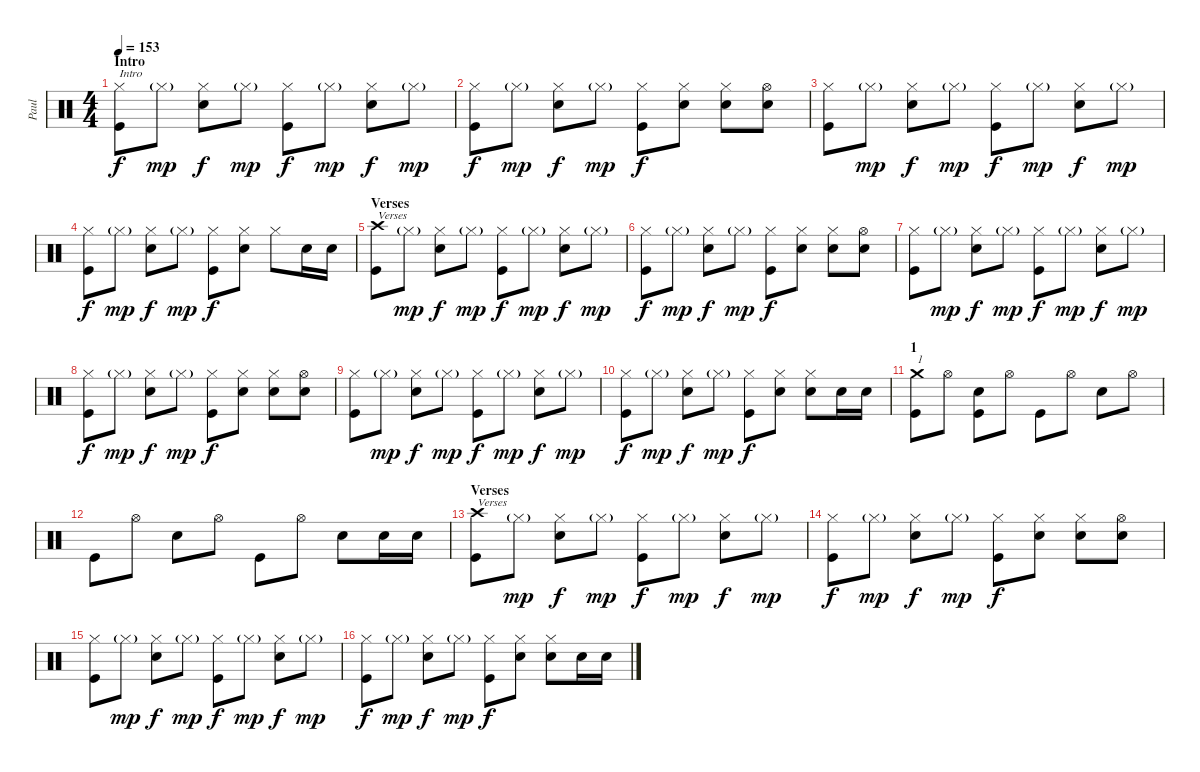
\track ("Paul" "Paul") {instrument percussion}
\staff {score}
\articulation defaults
\ts (4 4)
\section ("" "Intro")
\tempo 153
\clef neutral
\ks c
("Hi-Hat (closed)" "Kick (hit)").8{txt "Intro" dy f} "Hi-Hat (closed)"{g}.8{dy mp} ("Hi-Hat (closed)" "Electric Snare (hit)").8{dy f} "Hi-Hat (closed)"{g}.8{dy mp} ("Hi-Hat (closed)" "Kick (hit)").8{dy f} "Hi-Hat (closed)"{g}.8{dy mp} ("Hi-Hat (closed)" "Electric Snare (hit)").8{dy f} "Hi-Hat (closed)"{g}.8{dy mp} |
("Hi-Hat (closed)" "Kick (hit)").8{dy f} "Hi-Hat (closed)"{g}.8{dy mp} ("Hi-Hat (closed)" "Electric Snare (hit)").8{dy f} "Hi-Hat (closed)"{g}.8{dy mp} ("Hi-Hat (closed)" "Kick (hit)").8{dy f} ("Hi-Hat (closed)" "Electric Snare (hit)").8 ("Hi-Hat (closed)" "Electric Snare (hit)").8 ("Hi-Hat (open)" "Electric Snare (hit)").8 |
("Hi-Hat (closed)" "Kick (hit)").8 "Hi-Hat (closed)"{g}.8{dy mp} ("Hi-Hat (closed)" "Electric Snare (hit)").8{dy f} "Hi-Hat (closed)"{g}.8{dy mp} ("Hi-Hat (closed)" "Kick (hit)").8{dy f} "Hi-Hat (closed)"{g}.8{dy mp} ("Hi-Hat (closed)" "Electric Snare (hit)").8{dy f} "Hi-Hat (closed)"{g}.8{dy mp} |
("Hi-Hat (closed)" "Kick (hit)").8{dy f} "Hi-Hat (closed)"{g}.8{dy mp} ("Hi-Hat (closed)" "Electric Snare (hit)").8{dy f} "Hi-Hat (closed)"{g}.8{dy mp} ("Hi-Hat (closed)" "Kick (hit)").8{dy f} ("Hi-Hat (closed)" "Electric Snare (hit)").8 "Hi-Hat (closed)".8 "Electric Snare (hit)".16 "Electric Snare (hit)".16 |
\section ("" "Verses")
("Crash high (hit)" "Kick (hit)").8{txt "Verses"} "Hi-Hat (closed)"{g}.8{dy mp} ("Hi-Hat (closed)" "Electric Snare (hit)").8{dy f} "Hi-Hat (closed)"{g}.8{dy mp} ("Hi-Hat (closed)" "Kick (hit)").8{dy f} "Hi-Hat (closed)"{g}.8{dy mp} ("Hi-Hat (closed)" "Electric Snare (hit)").8{dy f} "Hi-Hat (closed)"{g}.8{dy mp} |
("Hi-Hat (closed)" "Kick (hit)").8{dy f} "Hi-Hat (closed)"{g}.8{dy mp} ("Hi-Hat (closed)" "Electric Snare (hit)").8{dy f} "Hi-Hat (closed)"{g}.8{dy mp} ("Hi-Hat (closed)" "Kick (hit)").8{dy f} ("Hi-Hat (closed)" "Electric Snare (hit)").8 ("Hi-Hat (closed)" "Electric Snare (hit)").8 ("Hi-Hat (open)" "Electric Snare (hit)").8 |
("Hi-Hat (closed)" "Kick (hit)").8 "Hi-Hat (closed)"{g}.8{dy mp} ("Hi-Hat (closed)" "Electric Snare (hit)").8{dy f} "Hi-Hat (closed)"{g}.8{dy mp} ("Hi-Hat (closed)" "Kick (hit)").8{dy f} "Hi-Hat (closed)"{g}.8{dy mp} ("Hi-Hat (closed)" "Electric Snare (hit)").8{dy f} "Hi-Hat (closed)"{g}.8{dy mp} |
("Hi-Hat (closed)" "Kick (hit)").8{dy f} "Hi-Hat (closed)"{g}.8{dy mp} ("Hi-Hat (closed)" "Electric Snare (hit)").8{dy f} "Hi-Hat (closed)"{g}.8{dy mp} ("Hi-Hat (closed)" "Kick (hit)").8{dy f} ("Hi-Hat (closed)" "Electric Snare (hit)").8 ("Hi-Hat (closed)" "Electric Snare (hit)").8 ("Hi-Hat (open)" "Electric Snare (hit)").8 |
("Hi-Hat (closed)" "Kick (hit)").8 "Hi-Hat (closed)"{g}.8{dy mp} ("Hi-Hat (closed)" "Electric Snare (hit)").8{dy f} "Hi-Hat (closed)"{g}.8{dy mp} ("Hi-Hat (closed)" "Kick (hit)").8{dy f} "Hi-Hat (closed)"{g}.8{dy mp} ("Hi-Hat (closed)" "Electric Snare (hit)").8{dy f} "Hi-Hat (closed)"{g}.8{dy mp} |
("Hi-Hat (closed)" "Kick (hit)").8{dy f} "Hi-Hat (closed)"{g}.8{dy mp} ("Hi-Hat (closed)" "Electric Snare (hit)").8{dy f} "Hi-Hat (closed)"{g}.8{dy mp} ("Hi-Hat (closed)" "Kick (hit)").8{dy f} ("Hi-Hat (closed)" "Electric Snare (hit)").8 ("Hi-Hat (closed)" "Electric Snare (hit)").8 "Electric Snare (hit)".16 "Electric Snare (hit)".16 |
\section ("" "1")
("Kick (hit)" "Crash medium (hit)").8{txt "1"} "Hi-Hat (open)".8 ("Electric Snare (hit)" "Kick (hit)").8 "Hi-Hat (open)".8 "Kick (hit)".8 "Hi-Hat (open)".8 "Electric Snare (hit)".8 "Hi-Hat (open)".8 |
"Kick (hit)".8 "Hi-Hat (open)".8 "Electric Snare (hit)".8 "Hi-Hat (open)".8 "Kick (hit)".8 "Hi-Hat (open)".8 "Electric Snare (hit)".8 "Electric Snare (hit)".16 "Electric Snare (hit)".16 |
\section ("" "Verses")
("Crash high (hit)" "Kick (hit)").8{txt "Verses"} "Hi-Hat (closed)"{g}.8{dy mp} ("Hi-Hat (closed)" "Electric Snare (hit)").8{dy f} "Hi-Hat (closed)"{g}.8{dy mp} ("Hi-Hat (closed)" "Kick (hit)").8{dy f} "Hi-Hat (closed)"{g}.8{dy mp} ("Hi-Hat (closed)" "Electric Snare (hit)").8{dy f} "Hi-Hat (closed)"{g}.8{dy mp} |
("Hi-Hat (closed)" "Kick (hit)").8{dy f} "Hi-Hat (closed)"{g}.8{dy mp} ("Hi-Hat (closed)" "Electric Snare (hit)").8{dy f} "Hi-Hat (closed)"{g}.8{dy mp} ("Hi-Hat (closed)" "Kick (hit)").8{dy f} ("Hi-Hat (closed)" "Electric Snare (hit)").8 ("Hi-Hat (closed)" "Electric Snare (hit)").8 ("Hi-Hat (open)" "Electric Snare (hit)").8 |
("Hi-Hat (closed)" "Kick (hit)").8 "Hi-Hat (closed)"{g}.8{dy mp} ("Hi-Hat (closed)" "Electric Snare (hit)").8{dy f} "Hi-Hat (closed)"{g}.8{dy mp} ("Hi-Hat (closed)" "Kick (hit)").8{dy f} "Hi-Hat (closed)"{g}.8{dy mp} ("Hi-Hat (closed)" "Electric Snare (hit)").8{dy f} "Hi-Hat (closed)"{g}.8{dy mp} |
("Hi-Hat (closed)" "Kick (hit)").8{dy f} "Hi-Hat (closed)"{g}.8{dy mp} ("Hi-Hat (closed)" "Electric Snare (hit)").8{dy f} "Hi-Hat (closed)"{g}.8{dy mp} ("Hi-Hat (closed)" "Kick (hit)").8{dy f} ("Hi-Hat (closed)" "Electric Snare (hit)").8 ("Hi-Hat (closed)" "Electric Snare (hit)").8 "Electric Snare (hit)".16 "Electric Snare (hit)".16
